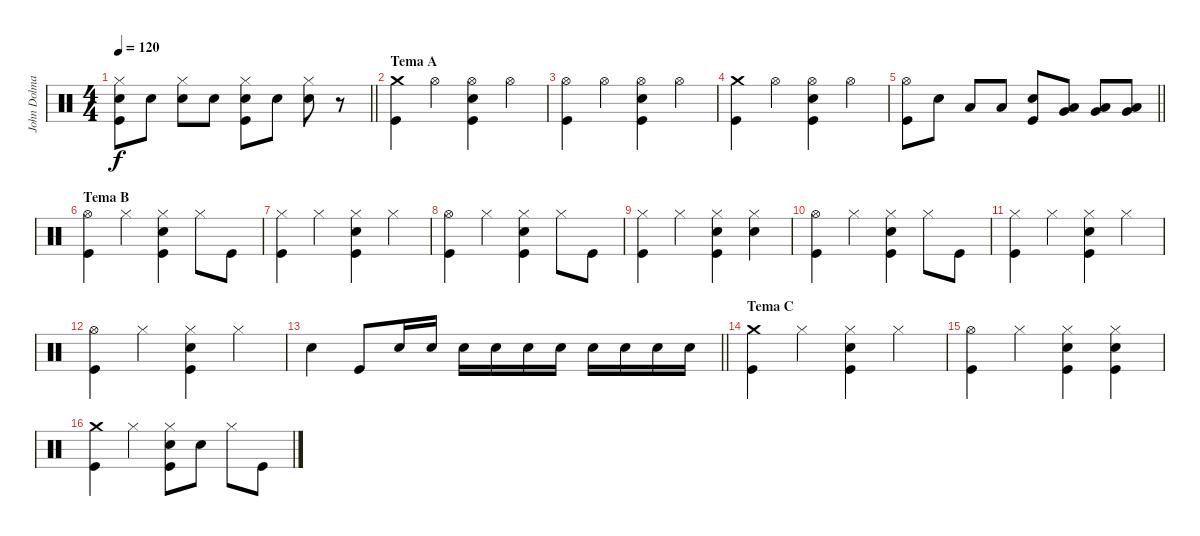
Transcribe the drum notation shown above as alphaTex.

\track ("John Dolmayan (Bateria)" "John Dolma") {instrument percussion}
\staff {score}
\articulation defaults
\ts (4 4)
\tempo 120
\clef neutral
\barLineRight lightlight
\ks c
("Hi-Hat (closed)" "Snare (hit) 2" "Kick (hit)").8{dy f} "Snare (hit) 2".8 ("Hi-Hat (closed)" "Snare (hit) 2").8 "Snare (hit) 2".8 ("Hi-Hat (closed)" "Snare (hit) 2" "Kick (hit)").8 "Snare (hit) 2".8 ("Hi-Hat (closed)" "Snare (hit) 2").8 r.8 |
\section ("" "Tema A")
("Crash medium (hit)" "Kick (hit)").4 "Hi-Hat (open)".4 ("Hi-Hat (open)" "Snare (hit) 2" "Kick (hit)").4 "Hi-Hat (open)".4 |
("Hi-Hat (open)" "Kick (hit)").4 "Hi-Hat (open)".4 ("Hi-Hat (open)" "Snare (hit) 2" "Kick (hit)").4 "Hi-Hat (open)".4 |
("Crash medium (hit)" "Kick (hit)").4 "Hi-Hat (open)".4 ("Hi-Hat (open)" "Snare (hit) 2" "Kick (hit)").4 "Hi-Hat (open)".4 |
\barLineRight lightlight
("Hi-Hat (open)" "Kick (hit)").8 "Snare (hit) 2".8 "Low Floor Tom (hit)".8 "Low Floor Tom (hit)".8 ("Snare (hit) 2" "Kick (hit)").8 ("Very Low Tom (hit)" "Low Floor Tom (hit)").8 ("Very Low Tom (hit)" "Low Floor Tom (hit)").8 ("Very Low Tom (hit)" "Low Floor Tom (hit)").8 |
\section ("" "Tema B")
("Hi-Hat (open)" "Kick (hit)").4 "Hi-Hat (closed)".4 ("Hi-Hat (closed)" "Snare (hit) 2" "Kick (hit)").4 "Hi-Hat (closed)".8 "Kick (hit)".8 |
("Hi-Hat (closed)" "Kick (hit)").4 "Hi-Hat (closed)".4 ("Hi-Hat (closed)" "Snare (hit) 2" "Kick (hit)").4 "Hi-Hat (closed)".4 |
("Hi-Hat (open)" "Kick (hit)").4 "Hi-Hat (closed)".4 ("Hi-Hat (closed)" "Snare (hit) 2" "Kick (hit)").4 "Hi-Hat (closed)".8 "Kick (hit)".8 |
("Hi-Hat (closed)" "Kick (hit)").4 "Hi-Hat (closed)".4 ("Hi-Hat (closed)" "Snare (hit) 2" "Kick (hit)").4 ("Hi-Hat (closed)" "Snare (hit) 2").4 |
("Hi-Hat (open)" "Kick (hit)").4 "Hi-Hat (closed)".4 ("Hi-Hat (closed)" "Snare (hit) 2" "Kick (hit)").4 "Hi-Hat (closed)".8 "Kick (hit)".8 |
("Hi-Hat (closed)" "Kick (hit)").4 "Hi-Hat (closed)".4 ("Hi-Hat (closed)" "Snare (hit) 2" "Kick (hit)").4 "Hi-Hat (closed)".4 |
("Hi-Hat (open)" "Kick (hit)").4 "Hi-Hat (closed)".4 ("Hi-Hat (closed)" "Snare (hit) 2" "Kick (hit)").4 "Hi-Hat (closed)".4 |
\barLineRight lightlight "Snare (hit) 2".4 "Kick (hit)".8 "Snare (hit) 2".16 "Snare (hit) 2".16 "Snare (hit) 2".16 "Snare (hit) 2".16 "Snare (hit) 2".16 "Snare (hit) 2".16 "Snare (hit) 2".16 "Snare (hit) 2".16 "Snare (hit) 2".16 "Snare (hit) 2".16
|
\section ("" "Tema C")
("Crash medium (hit)" "Kick (hit)").4 "Hi-Hat (closed)".4 ("Hi-Hat (closed)" "Snare (hit) 2" "Kick (hit)").4 "Hi-Hat (closed)".4 |
("Hi-Hat (open)" "Kick (hit)").4 "Hi-Hat (closed)".4 ("Hi-Hat (closed)" "Snare (hit) 2" "Kick (hit)").4 ("Hi-Hat (closed)" "Snare (hit) 2" "Kick (hit)").4 |
("Crash medium (hit)" "Kick (hit)").4 "Hi-Hat (closed)".4 ("Hi-Hat (closed)" "Snare (hit) 2" "Kick (hit)").8 "Snare (hit) 2".8 "Hi-Hat (closed)".8 "Kick (hit)".8
